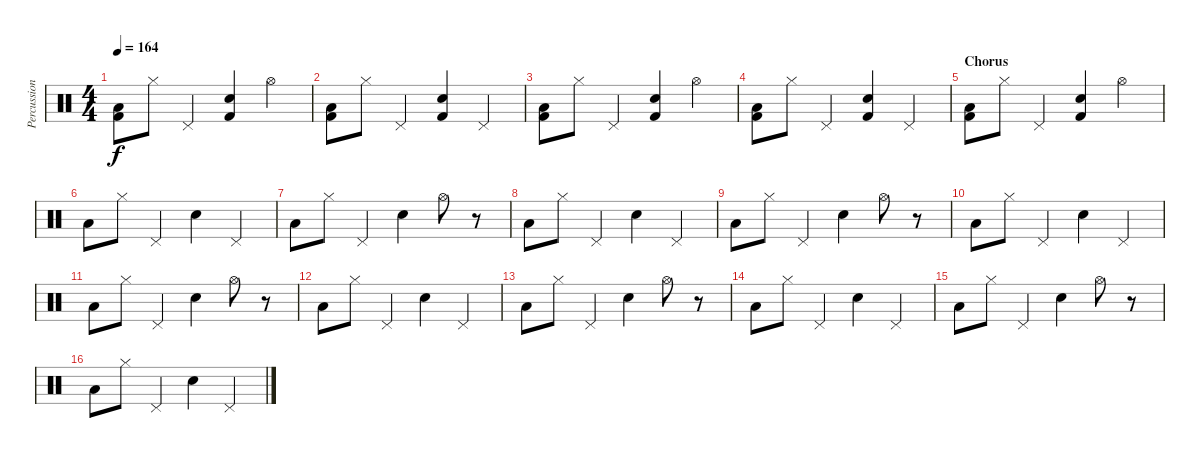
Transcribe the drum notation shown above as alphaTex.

\track ("Percussion" "Percussion") {instrument percussion}
\staff {score}
\articulation defaults
\ts (4 4)
\tempo 164
\clef neutral
\ks c
("Low Tom (hit)" "Kick (hit) 2").8{dy f} "Hi-Hat (closed)".8 "Pedal Hi-Hat (hit)".4 ("Snare (hit) 2" "Kick (hit) 2").4 "Hi-Hat (open)".4 |
("Low Tom (hit)" "Kick (hit) 2").8 "Hi-Hat (closed)".8 "Pedal Hi-Hat (hit)".4 ("Snare (hit) 2" "Kick (hit) 2").4 "Pedal Hi-Hat (hit)".4 |
("Low Tom (hit)" "Kick (hit) 2").8 "Hi-Hat (closed)".8 "Pedal Hi-Hat (hit)".4 ("Snare (hit) 2" "Kick (hit) 2").4 "Hi-Hat (open)".4 |
("Low Tom (hit)" "Kick (hit) 2").8 "Hi-Hat (closed)".8 "Pedal Hi-Hat (hit)".4 ("Snare (hit) 2" "Kick (hit) 2").4 "Pedal Hi-Hat (hit)".4 |
\section ("" "Chorus")
("Low Tom (hit)" "Kick (hit) 2").8 "Hi-Hat (closed)".8 "Pedal Hi-Hat (hit)".4 ("Snare (hit) 2" "Kick (hit) 2").4 "Hi-Hat (open)".4 |
"Low Tom (hit)".8 "Hi-Hat (closed)".8 "Pedal Hi-Hat (hit)".4 "Snare (hit) 2".4 "Pedal Hi-Hat (hit)".4 |
"Low Tom (hit)".8 "Hi-Hat (closed)".8 "Pedal Hi-Hat (hit)".4 "Snare (hit) 2".4 "Hi-Hat (open)".8 r.8 |
"Low Tom (hit)".8 "Hi-Hat (closed)".8 "Pedal Hi-Hat (hit)".4 "Snare (hit) 2".4 "Pedal Hi-Hat (hit)".4 |
"Low Tom (hit)".8 "Hi-Hat (closed)".8 "Pedal Hi-Hat (hit)".4 "Snare (hit) 2".4 "Hi-Hat (open)".8 r.8 |
"Low Tom (hit)".8 "Hi-Hat (closed)".8 "Pedal Hi-Hat (hit)".4 "Snare (hit) 2".4 "Pedal Hi-Hat (hit)".4 |
"Low Tom (hit)".8 "Hi-Hat (closed)".8 "Pedal Hi-Hat (hit)".4 "Snare (hit) 2".4 "Hi-Hat (open)".8 r.8 |
"Low Tom (hit)".8 "Hi-Hat (closed)".8 "Pedal Hi-Hat (hit)".4 "Snare (hit) 2".4 "Pedal Hi-Hat (hit)".4 |
"Low Tom (hit)".8 "Hi-Hat (closed)".8 "Pedal Hi-Hat (hit)".4 "Snare (hit) 2".4 "Hi-Hat (open)".8 r.8 |
"Low Tom (hit)".8 "Hi-Hat (closed)".8 "Pedal Hi-Hat (hit)".4 "Snare (hit) 2".4 "Pedal Hi-Hat (hit)".4 |
"Low Tom (hit)".8 "Hi-Hat (closed)".8 "Pedal Hi-Hat (hit)".4 "Snare (hit) 2".4 "Hi-Hat (open)".8 r.8 |
"Low Tom (hit)".8 "Hi-Hat (closed)".8 "Pedal Hi-Hat (hit)".4 "Snare (hit) 2".4 "Pedal Hi-Hat (hit)".4
